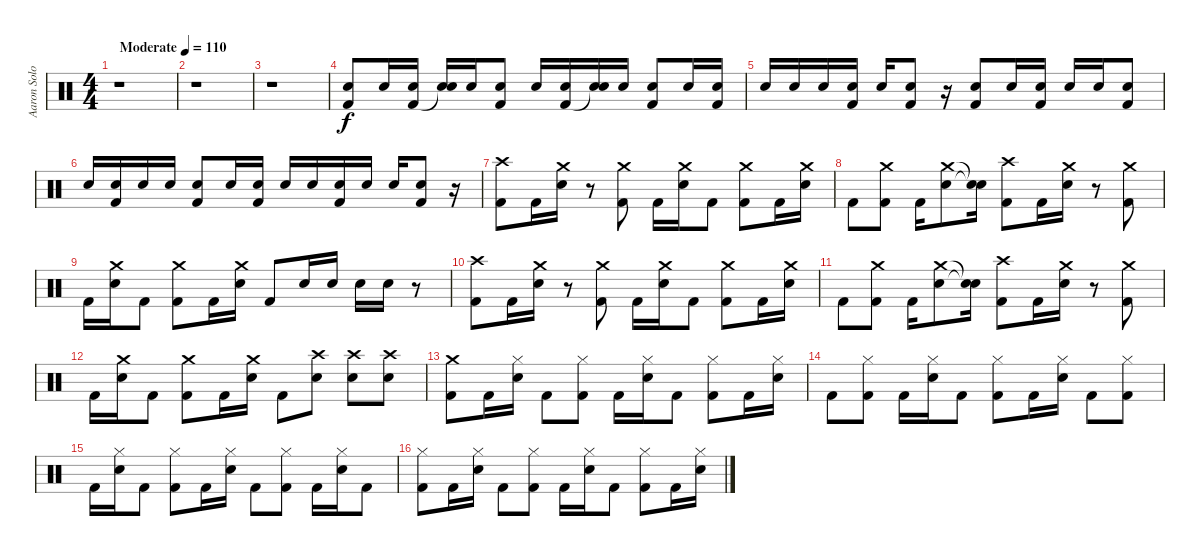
\track ("Aaron Solowoniuk - Drum" "Aaron Solo") {instrument percussion}
\staff {score}
\articulation defaults
\ts (4 4)
\tempo (110 "Moderate")
\clef neutral
\ks c
r.1{dy f} |
r.1 |
r.1 |
("Electric Snare (hit)" "Kick (hit) 2").8 "Electric Snare (hit)".16 ("Electric Snare (hit)" "Kick (hit) 2").16 ("Electric Snare (hit)" "Snare (hit)"{t}).16 "Electric Snare (hit)".16 ("Electric Snare (hit)" "Kick (hit) 2").8 "Electric Snare (hit)".16 ("Electric Snare (hit)" "Kick (hit) 2").16 ("Electric Snare (hit)" "Snare (hit)"{t}).16 "Electric Snare (hit)".16 ("Electric Snare (hit)" "Kick (hit) 2").8 "Electric Snare (hit)".16 ("Electric Snare (hit)" "Kick (hit) 2").16 |
"Electric Snare (hit)".16 "Electric Snare (hit)".16 "Electric Snare (hit)".16 ("Electric Snare (hit)" "Kick (hit) 2").16 "Electric Snare (hit)".16 ("Electric Snare (hit)" "Kick (hit) 2").8 r.16 ("Electric Snare (hit)" "Kick (hit) 2").8 "Electric Snare (hit)".16 ("Electric Snare (hit)" "Kick (hit) 2").16 "Electric Snare (hit)".16 "Electric Snare (hit)".16 ("Electric Snare (hit)" "Kick (hit) 2").8 |
"Electric Snare (hit)".16 ("Electric Snare (hit)" "Kick (hit) 2").16 "Electric Snare (hit)".16 "Electric Snare (hit)".16 ("Electric Snare (hit)" "Kick (hit) 2").8 "Electric Snare (hit)".16 ("Electric Snare (hit)" "Kick (hit) 2").16 "Electric Snare (hit)".16 "Electric Snare (hit)".16 ("Electric Snare (hit)" "Kick (hit) 2").16 "Electric Snare (hit)".16 "Electric Snare (hit)".16 ("Electric Snare (hit)" "Kick (hit) 2").8 r.16 |
("Crash high (hit)" "Kick (hit) 2").8 "Kick (hit) 2".16 ("Crash medium (hit)" "Electric Snare (hit)").16 r.8 ("Crash medium (hit)" "Kick (hit) 2").8 "Kick (hit) 2".16 ("Crash medium (hit)" "Electric Snare (hit)").16 "Kick (hit) 2".8 ("Crash medium (hit)" "Kick (hit) 2").8 "Kick (hit) 2".16 ("Crash medium (hit)" "Electric Snare (hit)").16 |
"Kick (hit) 2".8 ("Crash medium (hit)" "Kick (hit) 2").8 "Kick (hit) 2".16 ("Crash medium (hit)" "Electric Snare (hit)").8 ("Snare (hit)"{t} "Snare (hit)"{t}).16 ("Crash high (hit)" "Kick (hit) 2").8 "Kick (hit) 2".16 ("Crash medium (hit)" "Electric Snare (hit)").16 r.8 ("Crash medium (hit)" "Kick (hit) 2").8 |
"Kick (hit) 2".16 ("Crash medium (hit)" "Electric Snare (hit)").16 "Kick (hit) 2".8 ("Crash medium (hit)" "Kick (hit) 2").8 "Kick (hit) 2".16 ("Crash medium (hit)" "Electric Snare (hit)").16 "Kick (hit) 2".8 "Electric Snare (hit)".16 "Electric Snare (hit)".16 "Electric Snare (hit)".16 "Electric Snare (hit)".16 r.8 |
("Crash high (hit)" "Kick (hit) 2").8 "Kick (hit) 2".16 ("Crash medium (hit)" "Electric Snare (hit)").16 r.8 ("Crash medium (hit)" "Kick (hit) 2").8 "Kick (hit) 2".16 ("Crash medium (hit)" "Electric Snare (hit)").16 "Kick (hit) 2".8 ("Crash medium (hit)" "Kick (hit) 2").8 "Kick (hit) 2".16 ("Crash medium (hit)" "Electric Snare (hit)").16 |
"Kick (hit) 2".8 ("Crash medium (hit)" "Kick (hit) 2").8 "Kick (hit) 2".16 ("Crash medium (hit)" "Electric Snare (hit)").8 ("Snare (hit)"{t} "Snare (hit)"{t}).16 ("Crash high (hit)" "Kick (hit) 2").8 "Kick (hit) 2".16 ("Crash medium (hit)" "Electric Snare (hit)").16 r.8 ("Crash medium (hit)" "Kick (hit) 2").8 |
"Kick (hit) 2".16 ("Crash medium (hit)" "Electric Snare (hit)").16 "Kick (hit) 2".8 ("Crash medium (hit)" "Kick (hit) 2").8 "Kick (hit) 2".16 ("Crash medium (hit)" "Electric Snare (hit)").16 "Kick (hit) 2".8 ("Crash high (hit)" "Electric Snare (hit)").8 ("Crash high (hit)" "Electric Snare (hit)").8 ("Crash high (hit)" "Electric Snare (hit)").8 |
("Crash medium (hit)" "Kick (hit) 2").8 "Kick (hit) 2".16 ("Hi-Hat (closed)" "Electric Snare (hit)").16 "Kick (hit) 2".8 ("Hi-Hat (closed)" "Kick (hit) 2").8 "Kick (hit) 2".16 ("Hi-Hat (closed)" "Electric Snare (hit)").16 "Kick (hit) 2".8 ("Hi-Hat (closed)" "Kick (hit) 2").8 "Kick (hit) 2".16 ("Hi-Hat (closed)" "Electric Snare (hit)").16 |
"Kick (hit) 2".8 ("Hi-Hat (closed)" "Kick (hit) 2").8 "Kick (hit) 2".16 ("Hi-Hat (closed)" "Electric Snare (hit)").16 "Kick (hit) 2".8 ("Hi-Hat (closed)" "Kick (hit) 2").8 "Kick (hit) 2".16 ("Hi-Hat (closed)" "Electric Snare (hit)").16 "Kick (hit) 2".8 ("Hi-Hat (closed)" "Kick (hit) 2").8 |
"Kick (hit) 2".16 ("Hi-Hat (closed)" "Electric Snare (hit)").16 "Kick (hit) 2".8 ("Hi-Hat (closed)" "Kick (hit) 2").8 "Kick (hit) 2".16 ("Hi-Hat (closed)" "Electric Snare (hit)").16 "Kick (hit) 2".8 ("Hi-Hat (closed)" "Kick (hit) 2").8 "Kick (hit) 2".16 ("Hi-Hat (closed)" "Electric Snare (hit)").16 "Kick (hit) 2".8 |
("Hi-Hat (closed)" "Kick (hit) 2").8 "Kick (hit) 2".16 ("Hi-Hat (closed)" "Electric Snare (hit)").16 "Kick (hit) 2".8 ("Hi-Hat (closed)" "Kick (hit) 2").8 "Kick (hit) 2".16 ("Hi-Hat (closed)" "Electric Snare (hit)").16 "Kick (hit) 2".8 ("Hi-Hat (closed)" "Kick (hit) 2").8 "Kick (hit) 2".16 ("Hi-Hat (closed)" "Electric Snare (hit)").16
